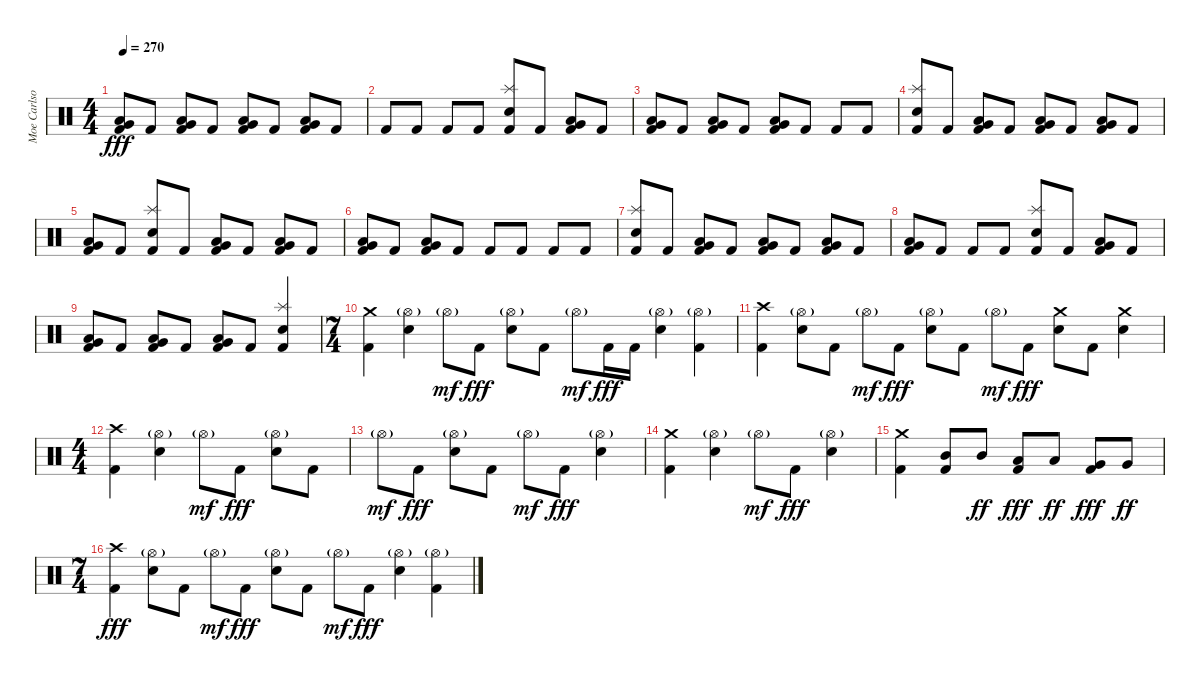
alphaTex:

\track ("Moe Carlson" "Moe Carlso") {instrument percussion}
\staff {score}
\articulation defaults
\ts (4 4)
\tempo 270
\clef neutral
\ks c
("Very Low Tom (hit)" "Low Floor Tom (hit)" "Kick (hit) 2").8{dy fff} "Kick (hit) 2".8 ("Very Low Tom (hit)" "Low Floor Tom (hit)" "Kick (hit) 2").8 "Kick (hit) 2".8 ("Very Low Tom (hit)" "Low Floor Tom (hit)" "Kick (hit) 2").8 "Kick (hit) 2".8 ("Very Low Tom (hit)" "Low Floor Tom (hit)" "Kick (hit) 2").8 "Kick (hit) 2".8 |
"Kick (hit) 2".8 "Kick (hit) 2".8 "Kick (hit) 2".8 "Kick (hit) 2".8 ("Splash (hit)" "Electric Snare (hit)" "Kick (hit) 2").8 "Kick (hit) 2".8 ("Very Low Tom (hit)" "Low Floor Tom (hit)" "Kick (hit) 2").8 "Kick (hit) 2".8 |
("Very Low Tom (hit)" "Low Floor Tom (hit)" "Kick (hit) 2").8 "Kick (hit) 2".8 ("Very Low Tom (hit)" "Low Floor Tom (hit)" "Kick (hit) 2").8 "Kick (hit) 2".8 ("Very Low Tom (hit)" "Low Floor Tom (hit)" "Kick (hit) 2").8 "Kick (hit) 2".8 "Kick (hit) 2".8 "Kick (hit) 2".8 |
("Splash (hit)" "Electric Snare (hit)" "Kick (hit) 2").8 "Kick (hit) 2".8 ("Very Low Tom (hit)" "Low Floor Tom (hit)" "Kick (hit) 2").8 "Kick (hit) 2".8 ("Very Low Tom (hit)" "Low Floor Tom (hit)" "Kick (hit) 2").8 "Kick (hit) 2".8 ("Very Low Tom (hit)" "Low Floor Tom (hit)" "Kick (hit) 2").8 "Kick (hit) 2".8 |
("Very Low Tom (hit)" "Low Floor Tom (hit)" "Kick (hit) 2").8 "Kick (hit) 2".8 ("Splash (hit)" "Electric Snare (hit)" "Kick (hit) 2").8 "Kick (hit) 2".8 ("Very Low Tom (hit)" "Low Floor Tom (hit)" "Kick (hit) 2").8 "Kick (hit) 2".8 ("Very Low Tom (hit)" "Low Floor Tom (hit)" "Kick (hit) 2").8 "Kick (hit) 2".8 |
("Very Low Tom (hit)" "Low Floor Tom (hit)" "Kick (hit) 2").8 "Kick (hit) 2".8 ("Very Low Tom (hit)" "Low Floor Tom (hit)" "Kick (hit) 2").8 "Kick (hit) 2".8 "Kick (hit) 2".8 "Kick (hit) 2".8 "Kick (hit) 2".8 "Kick (hit) 2".8 |
("Splash (hit)" "Electric Snare (hit)" "Kick (hit) 2").8 "Kick (hit) 2".8 ("Very Low Tom (hit)" "Low Floor Tom (hit)" "Kick (hit) 2").8 "Kick (hit) 2".8 ("Very Low Tom (hit)" "Low Floor Tom (hit)" "Kick (hit) 2").8 "Kick (hit) 2".8 ("Very Low Tom (hit)" "Low Floor Tom (hit)" "Kick (hit) 2").8 "Kick (hit) 2".8 |
("Very Low Tom (hit)" "Low Floor Tom (hit)" "Kick (hit) 2").8 "Kick (hit) 2".8 "Kick (hit) 2".8 "Kick (hit) 2".8 ("Splash (hit)" "Electric Snare (hit)" "Kick (hit) 2").8 "Kick (hit) 2".8 ("Very Low Tom (hit)" "Low Floor Tom (hit)" "Kick (hit) 2").8 "Kick (hit) 2".8 |
("Very Low Tom (hit)" "Low Floor Tom (hit)" "Kick (hit) 2").8 "Kick (hit) 2".8 ("Very Low Tom (hit)" "Low Floor Tom (hit)" "Kick (hit) 2").8 "Kick (hit) 2".8 ("Very Low Tom (hit)" "Low Floor Tom (hit)" "Kick (hit) 2").8 "Kick (hit) 2".8 ("Splash (hit)" "Electric Snare (hit)" "Kick (hit) 2").4 |
\ts (7 4)
("Crash medium (hit)" "Kick (hit) 2").4 ("Hi-Hat (open)"{g} "Electric Snare (hit)").4 "Hi-Hat (open)"{g}.8{dy mf} "Kick (hit) 2".8{dy fff} ("Hi-Hat (open)"{g} "Electric Snare (hit)").8 "Kick (hit) 2".8 "Hi-Hat (open)"{g}.8{dy mf} "Kick (hit) 2".16{dy fff} "Kick (hit) 2".16 ("Hi-Hat (open)"{g} "Electric Snare (hit)").4 ("Hi-Hat (open)"{g} "Kick (hit) 2").4 |
("Crash high (hit)" "Kick (hit) 2").4 ("Hi-Hat (open)"{g} "Electric Snare (hit)").8 "Kick (hit) 2".8 "Hi-Hat (open)"{g}.8{dy mf} "Kick (hit) 2".8{dy fff} ("Hi-Hat (open)"{g} "Electric Snare (hit)").8 "Kick (hit) 2".8 "Hi-Hat (open)"{g}.8{dy mf} "Kick (hit) 2".8{dy fff} ("Crash medium (hit)" "Electric Snare (hit)").8 "Kick (hit) 2".8 ("Crash medium (hit)" "Electric Snare (hit)").4 |
\ts (4 4)
("Crash high (hit)" "Kick (hit) 2").4 ("Hi-Hat (open)"{g} "Electric Snare (hit)").4 "Hi-Hat (open)"{g}.8{dy mf} "Kick (hit) 2".8{dy fff} ("Hi-Hat (open)"{g} "Electric Snare (hit)").8 "Kick (hit) 2".8 |
"Hi-Hat (open)"{g}.8{dy mf} "Kick (hit) 2".8{dy fff} ("Hi-Hat (open)"{g} "Electric Snare (hit)").8 "Kick (hit) 2".8 "Hi-Hat (open)"{g}.8{dy mf} "Kick (hit) 2".8{dy fff} ("Hi-Hat (open)"{g} "Electric Snare (hit)").4 |
("Crash medium (hit)" "Kick (hit) 2").4 ("Hi-Hat (open)"{g} "Electric Snare (hit)").4 "Hi-Hat (open)"{g}.8{dy mf} "Kick (hit) 2".8{dy fff} ("Hi-Hat (open)"{g} "Electric Snare (hit)").4 |
("Crash medium (hit)" "Kick (hit) 2").4 ("Mid Tom (hit)" "Kick (hit) 2").8 "Mid Tom (hit)".8{dy ff} ("Low Tom (hit)" "Kick (hit) 2").8{dy fff} "Low Tom (hit)".8{dy ff} ("Very Low Tom (hit)" "Kick (hit) 2").8{dy fff} "Very Low Tom (hit)".8{dy ff} |
\ts (7 4)
("Crash high (hit)" "Kick (hit) 2").4{dy fff} ("Hi-Hat (open)"{g} "Electric Snare (hit)").8 "Kick (hit) 2".8 "Hi-Hat (open)"{g}.8{dy mf} "Kick (hit) 2".8{dy fff} ("Hi-Hat (open)"{g} "Electric Snare (hit)").8 "Kick (hit) 2".8 "Hi-Hat (open)"{g}.8{dy mf} "Kick (hit) 2".8{dy fff} ("Hi-Hat (open)"{g} "Electric Snare (hit)").4 ("Hi-Hat (open)"{g} "Kick (hit) 2").4
